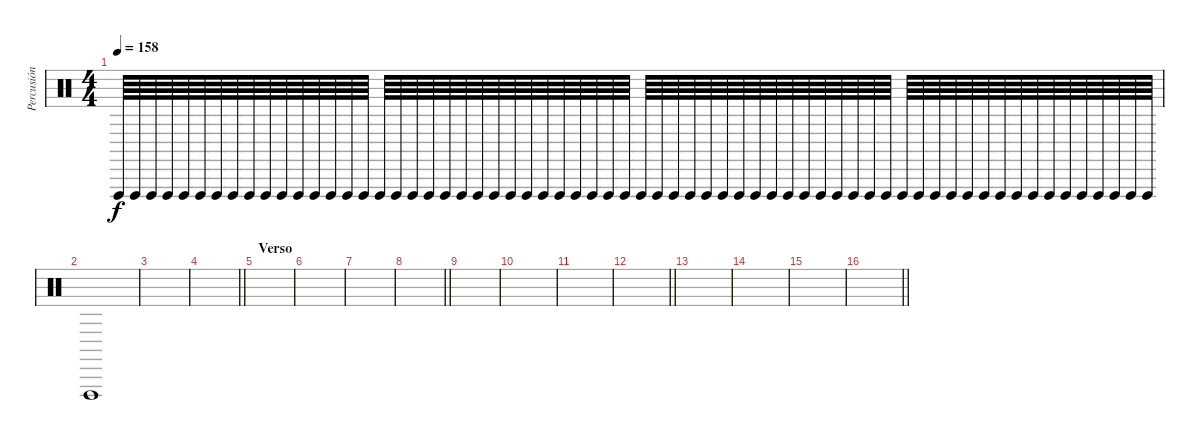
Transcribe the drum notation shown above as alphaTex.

\track ("Percusión" "Percusión") {instrument percussion}
\staff {score}
\articulation defaults
\ts (4 4)
\tempo 158
\clef neutral
\ks c "Vibraslap (hit)".64{dy f} "Vibraslap (hit)".64 "Vibraslap (hit)".64 "Vibraslap (hit)".64 "Vibraslap (hit)".64 "Vibraslap (hit)".64 "Vibraslap (hit)".64 "Vibraslap (hit)".64 "Vibraslap (hit)".64 "Vibraslap (hit)".64 "Vibraslap (hit)".64 "Vibraslap (hit)".64 "Vibraslap (hit)".64 "Vibraslap (hit)".64 "Vibraslap (hit)".64 "Vibraslap (hit)".64 "Vibraslap (hit)".64 "Vibraslap (hit)".64 "Vibraslap (hit)".64 "Vibraslap (hit)".64 "Vibraslap (hit)".64 "Vibraslap (hit)".64 "Vibraslap (hit)".64 "Vibraslap (hit)".64 "Vibraslap (hit)".64 "Vibraslap (hit)".64 "Vibraslap (hit)".64 "Vibraslap (hit)".64 "Vibraslap (hit)".64 "Vibraslap (hit)".64 "Vibraslap (hit)".64 "Vibraslap (hit)".64 "Vibraslap (hit)".64 "Vibraslap (hit)".64 "Vibraslap (hit)".64 "Vibraslap (hit)".64 "Vibraslap (hit)".64 "Vibraslap (hit)".64 "Vibraslap (hit)".64 "Vibraslap (hit)".64 "Vibraslap (hit)".64 "Vibraslap (hit)".64 "Vibraslap (hit)".64 "Vibraslap (hit)".64 "Vibraslap (hit)".64 "Vibraslap (hit)".64 "Vibraslap (hit)".64 "Vibraslap (hit)".64 "Vibraslap (hit)".64 "Vibraslap (hit)".64 "Vibraslap (hit)".64 "Vibraslap (hit)".64 "Vibraslap (hit)".64 "Vibraslap (hit)".64 "Vibraslap (hit)".64 "Vibraslap (hit)".64 "Vibraslap (hit)".64 "Vibraslap (hit)".64 "Vibraslap (hit)".64 "Vibraslap (hit)".64 "Vibraslap (hit)".64 "Vibraslap (hit)".64 "Vibraslap (hit)".64 "Vibraslap (hit)".64
|
"Vibraslap (hit)".1 |
|
\barLineRight lightlight
|
\section ("" "Verso")
|
|
|
\barLineRight lightlight
|
|
|
|
\barLineRight lightlight
|
|
|
|
\barLineRight lightlight
